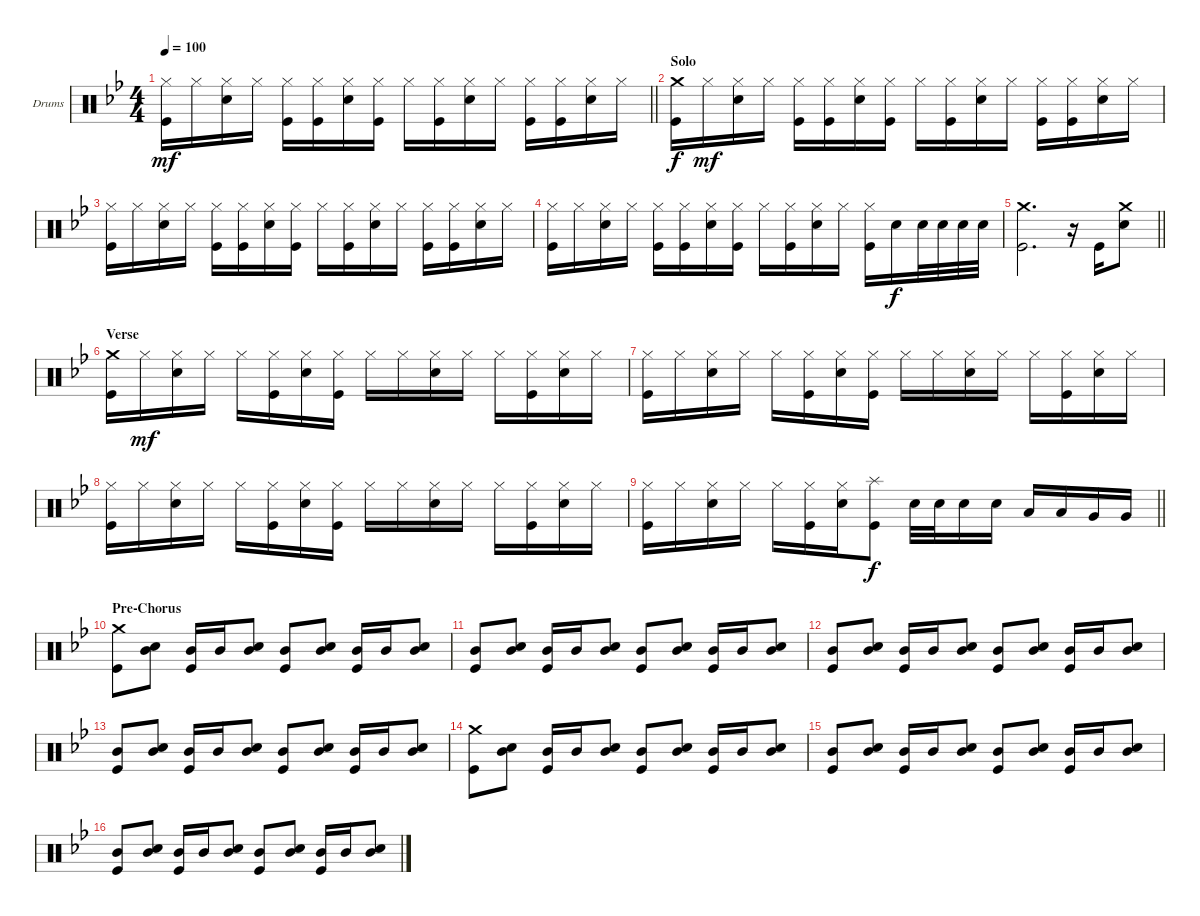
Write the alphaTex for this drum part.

\bracketExtendMode groupsimilarinstruments
\firstSystemTrackNameOrientation horizontal
\otherSystemsTrackNameOrientation horizontal
\track ("Drumkit" "Drums") {instrument percussion}
\staff {score}
\articulation defaults
\ts (4 4)
\tempo 100
\clef neutral
\barLineRight lightlight
\ks gminor
("Hi-Hat (closed)" "Kick (hit)").16{dy mf} "Hi-Hat (closed)".16 ("Hi-Hat (closed)" "Snare (hit) 2").16 "Hi-Hat (closed)".16 ("Hi-Hat (closed)" "Kick (hit)").16 ("Hi-Hat (closed)" "Kick (hit)").16 ("Hi-Hat (closed)" "Snare (hit) 2").16 ("Hi-Hat (closed)" "Kick (hit)").16 "Hi-Hat (closed)".16 ("Hi-Hat (closed)" "Kick (hit)").16 ("Hi-Hat (closed)" "Snare (hit) 2").16 "Hi-Hat (closed)".16 ("Hi-Hat (closed)" "Kick (hit)").16 ("Hi-Hat (closed)" "Kick (hit)").16 ("Hi-Hat (closed)" "Snare (hit) 2").16 "Hi-Hat (closed)".16 |
\section ("" "Solo")
("Crash medium (hit)" "Kick (hit)").16{dy f} "Hi-Hat (closed)".16{dy mf} ("Hi-Hat (closed)" "Snare (hit) 2").16 "Hi-Hat (closed)".16 ("Hi-Hat (closed)" "Kick (hit)").16 ("Hi-Hat (closed)" "Kick (hit)").16 ("Hi-Hat (closed)" "Snare (hit) 2").16 ("Hi-Hat (closed)" "Kick (hit)").16 "Hi-Hat (closed)".16 ("Hi-Hat (closed)" "Kick (hit)").16 ("Hi-Hat (closed)" "Snare (hit) 2").16 "Hi-Hat (closed)".16 ("Hi-Hat (closed)" "Kick (hit)").16 ("Hi-Hat (closed)" "Kick (hit)").16 ("Hi-Hat (closed)" "Snare (hit) 2").16 "Hi-Hat (closed)".16 |
("Hi-Hat (closed)" "Kick (hit)").16 "Hi-Hat (closed)".16 ("Hi-Hat (closed)" "Snare (hit) 2").16 "Hi-Hat (closed)".16 ("Hi-Hat (closed)" "Kick (hit)").16 ("Hi-Hat (closed)" "Kick (hit)").16 ("Hi-Hat (closed)" "Snare (hit) 2").16 ("Hi-Hat (closed)" "Kick (hit)").16 "Hi-Hat (closed)".16 ("Hi-Hat (closed)" "Kick (hit)").16 ("Hi-Hat (closed)" "Snare (hit) 2").16 "Hi-Hat (closed)".16 ("Hi-Hat (closed)" "Kick (hit)").16 ("Hi-Hat (closed)" "Kick (hit)").16 ("Hi-Hat (closed)" "Snare (hit) 2").16 "Hi-Hat (closed)".16 |
("Hi-Hat (closed)" "Kick (hit)").16 "Hi-Hat (closed)".16 ("Hi-Hat (closed)" "Snare (hit) 2").16 "Hi-Hat (closed)".16 ("Hi-Hat (closed)" "Kick (hit)").16 ("Hi-Hat (closed)" "Kick (hit)").16 ("Hi-Hat (closed)" "Snare (hit) 2").16 ("Hi-Hat (closed)" "Kick (hit)").16 "Hi-Hat (closed)".16 ("Hi-Hat (closed)" "Kick (hit)").16 ("Hi-Hat (closed)" "Snare (hit) 2").16 "Hi-Hat (closed)".16 ("Hi-Hat (closed)" "Kick (hit)").16 "Snare (hit) 2".16{dy f} "Snare (hit) 2".32 "Snare (hit) 2".32 "Snare (hit) 2".32 "Snare (hit) 2".32 |
\barLineRight lightlight
("Crash medium (hit)" "Kick (hit)").2{d} r.16 "Kick (hit)".16 ("Crash medium (hit)" "Snare (hit) 2").8 |
\section ("" "Verse")
("Crash medium (hit)" "Kick (hit)").16 "Hi-Hat (closed)".16{dy mf} ("Hi-Hat (closed)" "Snare (hit) 2").16 "Hi-Hat (closed)".16 "Hi-Hat (closed)".16 ("Hi-Hat (closed)" "Kick (hit)").16 ("Hi-Hat (closed)" "Snare (hit) 2").16 ("Hi-Hat (closed)" "Kick (hit)").16 "Hi-Hat (closed)".16 "Hi-Hat (closed)".16 ("Hi-Hat (closed)" "Snare (hit) 2").16 "Hi-Hat (closed)".16 "Hi-Hat (closed)".16 ("Hi-Hat (closed)" "Kick (hit)").16 ("Hi-Hat (closed)" "Snare (hit) 2").16 "Hi-Hat (closed)".16 |
("Hi-Hat (closed)" "Kick (hit)").16 "Hi-Hat (closed)".16 ("Hi-Hat (closed)" "Snare (hit) 2").16 "Hi-Hat (closed)".16 "Hi-Hat (closed)".16 ("Hi-Hat (closed)" "Kick (hit)").16 ("Hi-Hat (closed)" "Snare (hit) 2").16 ("Hi-Hat (closed)" "Kick (hit)").16 "Hi-Hat (closed)".16 "Hi-Hat (closed)".16 ("Hi-Hat (closed)" "Snare (hit) 2").16 "Hi-Hat (closed)".16 "Hi-Hat (closed)".16 ("Hi-Hat (closed)" "Kick (hit)").16 ("Hi-Hat (closed)" "Snare (hit) 2").16 "Hi-Hat (closed)".16 |
("Hi-Hat (closed)" "Kick (hit)").16 "Hi-Hat (closed)".16 ("Hi-Hat (closed)" "Snare (hit) 2").16 "Hi-Hat (closed)".16 "Hi-Hat (closed)".16 ("Hi-Hat (closed)" "Kick (hit)").16 ("Hi-Hat (closed)" "Snare (hit) 2").16 ("Hi-Hat (closed)" "Kick (hit)").16 "Hi-Hat (closed)".16 "Hi-Hat (closed)".16 ("Hi-Hat (closed)" "Snare (hit) 2").16 "Hi-Hat (closed)".16 "Hi-Hat (closed)".16 ("Hi-Hat (closed)" "Kick (hit)").16 ("Hi-Hat (closed)" "Snare (hit) 2").16 "Hi-Hat (closed)".16 |
\barLineRight lightlight
("Hi-Hat (closed)" "Kick (hit)").16 "Hi-Hat (closed)".16 ("Hi-Hat (closed)" "Snare (hit) 2").16 "Hi-Hat (closed)".16 "Hi-Hat (closed)".16 ("Hi-Hat (closed)" "Kick (hit)").16 ("Hi-Hat (closed)" "Snare (hit) 2").16 ("Splash (hit)" "Kick (hit)").8{dy f} "Snare (hit) 2".32 "Snare (hit) 2".32 "Snare (hit) 2".16 "Snare (hit) 2".16 "Low Tom (hit)".16 "Low Tom (hit)".16 "Very Low Tom (hit)".16 "Very Low Tom (hit)".16 |
\section ("" "Pre-Chorus")
("Crash medium (hit)" "Kick (hit)").8 ("Mid Tom (hit)" "Snare (hit) 2").8 ("Mid Tom (hit)" "Kick (hit)").16 "Mid Tom (hit)".16 ("Mid Tom (hit)" "Snare (hit) 2").8 ("Mid Tom (hit)" "Kick (hit)").8 ("Mid Tom (hit)" "Snare (hit) 2").8 ("Mid Tom (hit)" "Kick (hit)").16 "Mid Tom (hit)".16 ("Mid Tom (hit)" "Snare (hit) 2").8 |
("Mid Tom (hit)" "Kick (hit)").8 ("Mid Tom (hit)" "Snare (hit) 2").8 ("Mid Tom (hit)" "Kick (hit)").16 "Mid Tom (hit)".16 ("Mid Tom (hit)" "Snare (hit) 2").8 ("Mid Tom (hit)" "Kick (hit)").8 ("Mid Tom (hit)" "Snare (hit) 2").8 ("Mid Tom (hit)" "Kick (hit)").16 "Mid Tom (hit)".16 ("Mid Tom (hit)" "Snare (hit) 2").8 |
("Mid Tom (hit)" "Kick (hit)").8 ("Mid Tom (hit)" "Snare (hit) 2").8 ("Mid Tom (hit)" "Kick (hit)").16 "Mid Tom (hit)".16 ("Mid Tom (hit)" "Snare (hit) 2").8 ("Mid Tom (hit)" "Kick (hit)").8 ("Mid Tom (hit)" "Snare (hit) 2").8 ("Mid Tom (hit)" "Kick (hit)").16 "Mid Tom (hit)".16 ("Mid Tom (hit)" "Snare (hit) 2").8 |
("Mid Tom (hit)" "Kick (hit)").8 ("Mid Tom (hit)" "Snare (hit) 2").8 ("Mid Tom (hit)" "Kick (hit)").16 "Mid Tom (hit)".16 ("Mid Tom (hit)" "Snare (hit) 2").8 ("Mid Tom (hit)" "Kick (hit)").8 ("Mid Tom (hit)" "Snare (hit) 2").8 ("Mid Tom (hit)" "Kick (hit)").16 "Mid Tom (hit)".16 ("Mid Tom (hit)" "Snare (hit) 2").8 |
("Crash medium (hit)" "Kick (hit)").8 ("Mid Tom (hit)" "Snare (hit) 2").8 ("Mid Tom (hit)" "Kick (hit)").16 "Mid Tom (hit)".16 ("Mid Tom (hit)" "Snare (hit) 2").8 ("Mid Tom (hit)" "Kick (hit)").8 ("Mid Tom (hit)" "Snare (hit) 2").8 ("Mid Tom (hit)" "Kick (hit)").16 "Mid Tom (hit)".16 ("Mid Tom (hit)" "Snare (hit) 2").8 |
("Mid Tom (hit)" "Kick (hit)").8 ("Mid Tom (hit)" "Snare (hit) 2").8 ("Mid Tom (hit)" "Kick (hit)").16 "Mid Tom (hit)".16 ("Mid Tom (hit)" "Snare (hit) 2").8 ("Mid Tom (hit)" "Kick (hit)").8 ("Mid Tom (hit)" "Snare (hit) 2").8 ("Mid Tom (hit)" "Kick (hit)").16 "Mid Tom (hit)".16 ("Mid Tom (hit)" "Snare (hit) 2").8 |
("Mid Tom (hit)" "Kick (hit)").8 ("Mid Tom (hit)" "Snare (hit) 2").8 ("Mid Tom (hit)" "Kick (hit)").16 "Mid Tom (hit)".16 ("Mid Tom (hit)" "Snare (hit) 2").8 ("Mid Tom (hit)" "Kick (hit)").8 ("Mid Tom (hit)" "Snare (hit) 2").8 ("Mid Tom (hit)" "Kick (hit)").16 "Mid Tom (hit)".16 ("Mid Tom (hit)" "Snare (hit) 2").8
